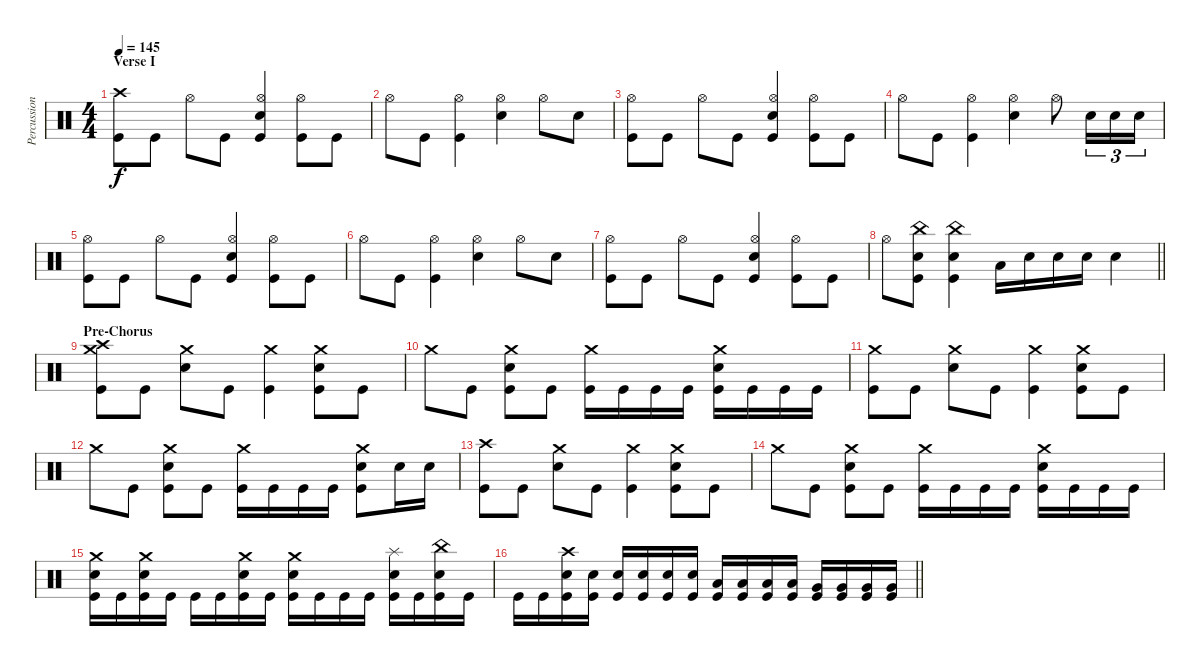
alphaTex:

\track ("Percussion" "Percussion") {instrument percussion}
\staff {score}
\articulation defaults
\ts (4 4)
\section ("" "Verse I")
\tempo 145
\clef neutral
\ks c
("Crash high (hit)" "Kick (hit)").8{dy f} "Kick (hit)".8 "Hi-Hat (open)".8 "Kick (hit)".8 ("Hi-Hat (open)" "Electric Snare (hit)" "Kick (hit)").4 ("Hi-Hat (open)" "Kick (hit)").8 "Kick (hit)".8 |
"Hi-Hat (open)".8 "Kick (hit)".8 ("Hi-Hat (open)" "Kick (hit)").4 ("Hi-Hat (open)" "Electric Snare (hit)").4 "Hi-Hat (open)".8 "Electric Snare (hit)".8 |
("Hi-Hat (open)" "Kick (hit)").8 "Kick (hit)".8 "Hi-Hat (open)".8 "Kick (hit)".8 ("Hi-Hat (open)" "Electric Snare (hit)" "Kick (hit)").4 ("Hi-Hat (open)" "Kick (hit)").8 "Kick (hit)".8 |
"Hi-Hat (open)".8 "Kick (hit)".8 ("Hi-Hat (open)" "Kick (hit)").4 ("Hi-Hat (open)" "Electric Snare (hit)").4 "Hi-Hat (open)".8 "Electric Snare (hit)".16{tu (3 2)} "Electric Snare (hit)".16{tu (3 2)} "Electric Snare (hit)".16{tu (3 2)} |
("Hi-Hat (open)" "Kick (hit)").8 "Kick (hit)".8 "Hi-Hat (open)".8 "Kick (hit)".8 ("Hi-Hat (open)" "Electric Snare (hit)" "Kick (hit)").4 ("Hi-Hat (open)" "Kick (hit)").8 "Kick (hit)".8 |
"Hi-Hat (open)".8 "Kick (hit)".8 ("Hi-Hat (open)" "Kick (hit)").4 ("Hi-Hat (open)" "Electric Snare (hit)").4 "Hi-Hat (open)".8 "Electric Snare (hit)".8 |
("Hi-Hat (open)" "Kick (hit)").8 "Kick (hit)".8 "Hi-Hat (open)".8 "Kick (hit)".8 ("Hi-Hat (open)" "Electric Snare (hit)" "Kick (hit)").4 ("Hi-Hat (open)" "Kick (hit)").8 "Kick (hit)".8 |
\barLineRight lightlight "Hi-Hat (open)".8
("China (hit)" "Electric Snare (hit)" "Kick (hit)").8 ("China (hit)" "Electric Snare (hit)" "Kick (hit)").4 "Low Floor Tom (hit)".16 "Electric Snare (hit)".16 "Electric Snare (hit)".16 "Electric Snare (hit)".16 "Electric Snare (hit)".4 |
\section ("" "Pre-Chorus")
("Crash high (hit)" "Crash medium (hit)" "Kick (hit)").8 "Kick (hit)".8 ("Crash medium (hit)" "Electric Snare (hit)").8 "Kick (hit)".8 ("Crash medium (hit)" "Kick (hit)").4 ("Crash medium (hit)" "Electric Snare (hit)" "Kick (hit)").8 "Kick (hit)".8 |
"Crash medium (hit)".8 "Kick (hit)".8 ("Crash medium (hit)" "Electric Snare (hit)" "Kick (hit)").8 "Kick (hit)".8 ("Crash medium (hit)" "Kick (hit)").16 "Kick (hit)".16 "Kick (hit)".16 "Kick (hit)".16 ("Crash medium (hit)" "Electric Snare (hit)" "Kick (hit)").16 "Kick (hit)".16 "Kick (hit)".16 "Kick (hit)".16 |
("Crash medium (hit)" "Kick (hit)").8 "Kick (hit)".8 ("Crash medium (hit)" "Electric Snare (hit)").8 "Kick (hit)".8 ("Crash medium (hit)" "Kick (hit)").4 ("Crash medium (hit)" "Electric Snare (hit)" "Kick (hit)").8 "Kick (hit)".8 |
"Crash medium (hit)".8 "Kick (hit)".8 ("Crash medium (hit)" "Electric Snare (hit)" "Kick (hit)").8 "Kick (hit)".8 ("Crash medium (hit)" "Kick (hit)").16 "Kick (hit)".16 "Kick (hit)".16 "Kick (hit)".16 ("Crash medium (hit)" "Electric Snare (hit)" "Kick (hit)").8 "Electric Snare (hit)".16 "Electric Snare (hit)".16 |
("Crash high (hit)" "Kick (hit)").8 "Kick (hit)".8 ("Crash medium (hit)" "Electric Snare (hit)").8 "Kick (hit)".8 ("Crash medium (hit)" "Kick (hit)").4 ("Crash medium (hit)" "Electric Snare (hit)" "Kick (hit)").8 "Kick (hit)".8 |
"Crash medium (hit)".8 "Kick (hit)".8 ("Crash medium (hit)" "Electric Snare (hit)" "Kick (hit)").8 "Kick (hit)".8 ("Crash medium (hit)" "Kick (hit)").16 "Kick (hit)".16 "Kick (hit)".16 "Kick (hit)".16 ("Crash medium (hit)" "Electric Snare (hit)" "Kick (hit)").16 "Kick (hit)".16 "Kick (hit)".16 "Kick (hit)".16 |
("Crash medium (hit)" "Electric Snare (hit)" "Kick (hit)").16 "Kick (hit)".16 ("Crash medium (hit)" "Electric Snare (hit)" "Kick (hit)").16 "Kick (hit)".16 "Kick (hit)".16 "Kick (hit)".16 ("Crash medium (hit)" "Electric Snare (hit)" "Kick (hit)").16 "Kick (hit)".16 ("Crash medium (hit)" "Electric Snare (hit)" "Kick (hit)").16 "Kick (hit)".16 "Kick (hit)".16 "Kick (hit)".16 ("Splash (hit)" "Electric Snare (hit)" "Kick (hit)").16 "Kick (hit)".16 ("China (hit)" "Electric Snare (hit)" "Kick (hit)").16 "Kick (hit)".16 |
\barLineRight lightlight "Kick (hit)".16 "Kick (hit)".16
("Crash high (hit)" "Electric Snare (hit)" "Kick (hit)").16 ("Electric Snare (hit)" "Kick (hit)").16 ("Electric Snare (hit)" "Kick (hit)").16 ("Electric Snare (hit)" "Kick (hit)").16 ("Electric Snare (hit)" "Kick (hit)").16 ("Electric Snare (hit)" "Kick (hit)").16 ("Low Tom (hit)" "Kick (hit)").16 ("Low Tom (hit)" "Kick (hit)").16 ("Low Tom (hit)" "Kick (hit)").16 ("Low Tom (hit)" "Kick (hit)").16 ("Very Low Tom (hit)" "Kick (hit)").16 ("Very Low Tom (hit)" "Kick (hit)").16 ("Very Low Tom (hit)" "Kick (hit)").16 ("Very Low Tom (hit)" "Kick (hit)").16
